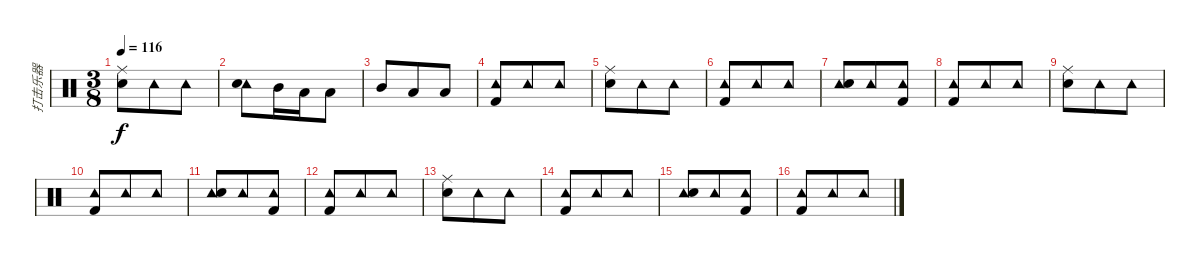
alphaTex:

\track ("打击乐器" "打击乐器") {instrument percussion}
\staff {score}
\articulation defaults
\ts (3 8)
\tempo 116
\clef neutral
\ks c
("Ride (middle)" "Snare (hit) 2").8{dy f} "Tambourine (hit)".8 "Tambourine (hit)".8 |
("Tambourine (hit)" "Snare (hit) 2").8 "Mid Tom (hit)".16 "Low Tom (hit)".16 "Low Floor Tom (hit)".8 |
"Mid Tom (hit)".8 "Low Tom (hit)".8 "Low Floor Tom (hit)".8 |
("Tambourine (hit)" "Kick (hit) 2").8 "Tambourine (hit)".8 "Tambourine (hit)".8 |
("Ride (middle)" "Snare (hit) 2").8 "Tambourine (hit)".8 "Tambourine (hit)".8 |
("Tambourine (hit)" "Kick (hit) 2").8 "Tambourine (hit)".8 "Tambourine (hit)".8 |
("Tambourine (hit)" "Snare (hit) 2").8 "Tambourine (hit)".8 ("Tambourine (hit)" "Kick (hit) 2").8 |
("Tambourine (hit)" "Kick (hit) 2").8 "Tambourine (hit)".8 "Tambourine (hit)".8 |
("Ride (middle)" "Snare (hit) 2").8 "Tambourine (hit)".8 "Tambourine (hit)".8 |
("Tambourine (hit)" "Kick (hit) 2").8 "Tambourine (hit)".8 "Tambourine (hit)".8 |
("Tambourine (hit)" "Snare (hit) 2").8 "Tambourine (hit)".8 ("Tambourine (hit)" "Kick (hit) 2").8 |
("Tambourine (hit)" "Kick (hit) 2").8 "Tambourine (hit)".8 "Tambourine (hit)".8 |
("Ride (middle)" "Snare (hit) 2").8 "Tambourine (hit)".8 "Tambourine (hit)".8 |
("Tambourine (hit)" "Kick (hit) 2").8 "Tambourine (hit)".8 "Tambourine (hit)".8 |
("Tambourine (hit)" "Snare (hit) 2").8 "Tambourine (hit)".8 ("Tambourine (hit)" "Kick (hit) 2").8 |
("Tambourine (hit)" "Kick (hit) 2").8 "Tambourine (hit)".8 "Tambourine (hit)".8
